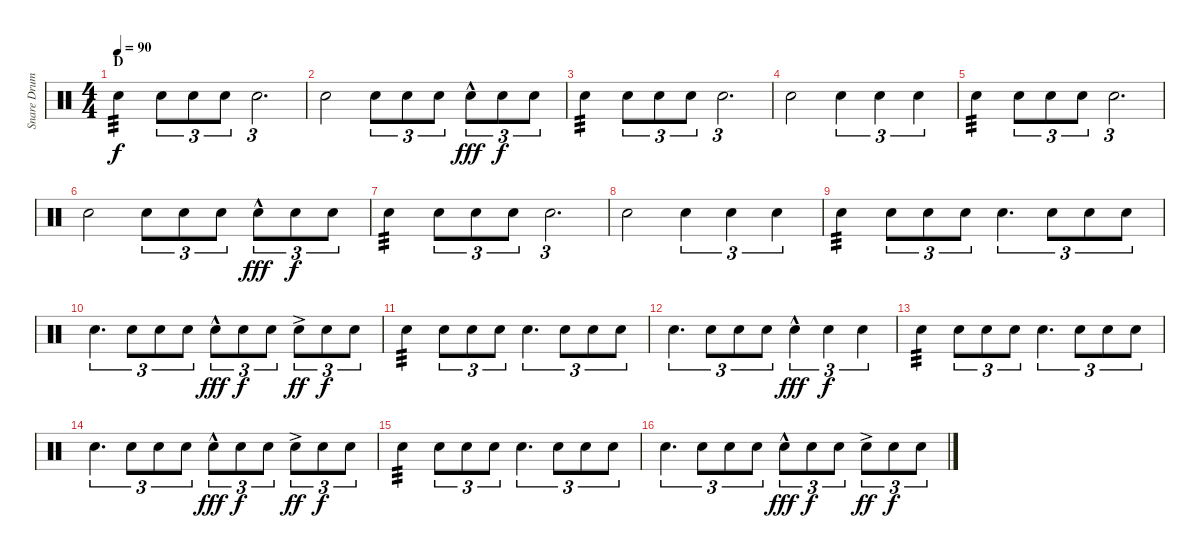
\track ("Snare Drum" "Snare Drum") {instrument percussion}
\staff {score}
\articulation defaults
\ts (4 4)
\section ("" "D")
\tempo 90
\clef neutral
\ks c "Electric Snare (hit)".4{tp 3 dy f} "Electric Snare (hit)".8{tu (3 2)} "Electric Snare (hit)".8{tu (3 2)} "Electric Snare (hit)".8{tu (3 2)} "Electric Snare (hit)".2{d tu (3 2)}
|
"Electric Snare (hit)".2 "Electric Snare (hit)".8{tu (3 2)} "Electric Snare (hit)".8{tu (3 2)} "Electric Snare (hit)".8{tu (3 2)} "Electric Snare (hit)"{hac}.8{tu (3 2) dy fff} "Electric Snare (hit)".8{tu (3 2) dy f} "Electric Snare (hit)".8{tu (3 2)} |
"Electric Snare (hit)".4{tp 3} "Electric Snare (hit)".8{tu (3 2)} "Electric Snare (hit)".8{tu (3 2)} "Electric Snare (hit)".8{tu (3 2)} "Electric Snare (hit)".2{d tu (3 2)} |
"Electric Snare (hit)".2 "Electric Snare (hit)".4{tu (3 2)} "Electric Snare (hit)".4{tu (3 2)} "Electric Snare (hit)".4{tu (3 2)} |
"Electric Snare (hit)".4{tp 3} "Electric Snare (hit)".8{tu (3 2)} "Electric Snare (hit)".8{tu (3 2)} "Electric Snare (hit)".8{tu (3 2)} "Electric Snare (hit)".2{d tu (3 2)} |
"Electric Snare (hit)".2 "Electric Snare (hit)".8{tu (3 2)} "Electric Snare (hit)".8{tu (3 2)} "Electric Snare (hit)".8{tu (3 2)} "Electric Snare (hit)"{hac}.8{tu (3 2) dy fff} "Electric Snare (hit)".8{tu (3 2) dy f} "Electric Snare (hit)".8{tu (3 2)} |
"Electric Snare (hit)".4{tp 3} "Electric Snare (hit)".8{tu (3 2)} "Electric Snare (hit)".8{tu (3 2)} "Electric Snare (hit)".8{tu (3 2)} "Electric Snare (hit)".2{d tu (3 2)} |
"Electric Snare (hit)".2 "Electric Snare (hit)".4{tu (3 2)} "Electric Snare (hit)".4{tu (3 2)} "Electric Snare (hit)".4{tu (3 2)} |
"Electric Snare (hit)".4{tp 3} "Electric Snare (hit)".8{tu (3 2)} "Electric Snare (hit)".8{tu (3 2)} "Electric Snare (hit)".8{tu (3 2)} "Electric Snare (hit)".4{d tu (3 2)} "Electric Snare (hit)".8{tu (3 2)} "Electric Snare (hit)".8{tu (3 2)} "Electric Snare (hit)".8{tu (3 2)} |
"Electric Snare (hit)".4{d tu (3 2)} "Electric Snare (hit)".8{tu (3 2)} "Electric Snare (hit)".8{tu (3 2)} "Electric Snare (hit)".8{tu (3 2)} "Electric Snare (hit)"{hac}.8{tu (3 2) dy fff} "Electric Snare (hit)".8{tu (3 2) dy f} "Electric Snare (hit)".8{tu (3 2)} "Electric Snare (hit)"{ac}.8{tu (3 2) dy ff} "Electric Snare (hit)".8{tu (3 2) dy f} "Electric Snare (hit)".8{tu (3 2)} |
"Electric Snare (hit)".4{tp 3} "Electric Snare (hit)".8{tu (3 2)} "Electric Snare (hit)".8{tu (3 2)} "Electric Snare (hit)".8{tu (3 2)} "Electric Snare (hit)".4{d tu (3 2)} "Electric Snare (hit)".8{tu (3 2)} "Electric Snare (hit)".8{tu (3 2)} "Electric Snare (hit)".8{tu (3 2)} |
"Electric Snare (hit)".4{d tu (3 2)} "Electric Snare (hit)".8{tu (3 2)} "Electric Snare (hit)".8{tu (3 2)} "Electric Snare (hit)".8{tu (3 2)} "Electric Snare (hit)"{hac}.4{tu (3 2) dy fff} "Electric Snare (hit)".4{tu (3 2) dy f} "Electric Snare (hit)".4{tu (3 2)} |
"Electric Snare (hit)".4{tp 3} "Electric Snare (hit)".8{tu (3 2)} "Electric Snare (hit)".8{tu (3 2)} "Electric Snare (hit)".8{tu (3 2)} "Electric Snare (hit)".4{d tu (3 2)} "Electric Snare (hit)".8{tu (3 2)} "Electric Snare (hit)".8{tu (3 2)} "Electric Snare (hit)".8{tu (3 2)} |
"Electric Snare (hit)".4{d tu (3 2)} "Electric Snare (hit)".8{tu (3 2)} "Electric Snare (hit)".8{tu (3 2)} "Electric Snare (hit)".8{tu (3 2)} "Electric Snare (hit)"{hac}.8{tu (3 2) dy fff} "Electric Snare (hit)".8{tu (3 2) dy f} "Electric Snare (hit)".8{tu (3 2)} "Electric Snare (hit)"{ac}.8{tu (3 2) dy ff} "Electric Snare (hit)".8{tu (3 2) dy f} "Electric Snare (hit)".8{tu (3 2)} |
"Electric Snare (hit)".4{tp 3} "Electric Snare (hit)".8{tu (3 2)} "Electric Snare (hit)".8{tu (3 2)} "Electric Snare (hit)".8{tu (3 2)} "Electric Snare (hit)".4{d tu (3 2)} "Electric Snare (hit)".8{tu (3 2)} "Electric Snare (hit)".8{tu (3 2)} "Electric Snare (hit)".8{tu (3 2)} |
"Electric Snare (hit)".4{d tu (3 2)} "Electric Snare (hit)".8{tu (3 2)} "Electric Snare (hit)".8{tu (3 2)} "Electric Snare (hit)".8{tu (3 2)} "Electric Snare (hit)"{hac}.8{tu (3 2) dy fff} "Electric Snare (hit)".8{tu (3 2) dy f} "Electric Snare (hit)".8{tu (3 2)} "Electric Snare (hit)"{ac}.8{tu (3 2) dy ff} "Electric Snare (hit)".8{tu (3 2) dy f} "Electric Snare (hit)".8{tu (3 2)}
